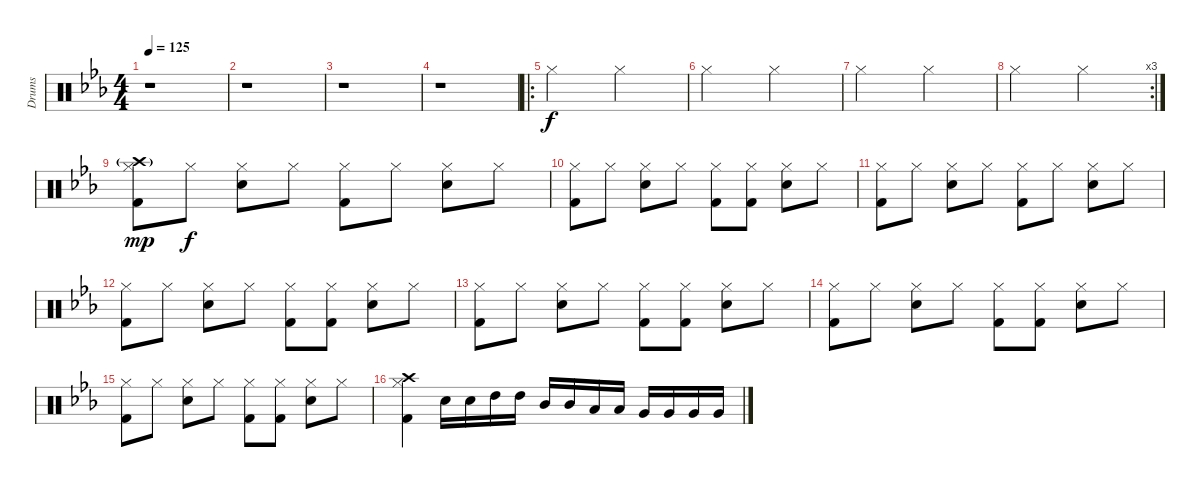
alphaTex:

\track ("Drums" "Drums") {instrument percussion}
\staff {score}
\articulation defaults
\ts (4 4)
\tempo 125
\clef neutral
\ks eb
r.1{dy f} |
r.1 |
r.1 |
r.1 |
\ro "Hi-Hat (closed)".2 "Hi-Hat (closed)".2
|
"Hi-Hat (closed)".2 "Hi-Hat (closed)".2 |
"Hi-Hat (closed)".2 "Hi-Hat (closed)".2 |
\rc 3 "Hi-Hat (closed)".2 "Hi-Hat (closed)".2
|
("Hi-Hat (closed)" "Crash high (hit)"{g} "Kick (hit) 2").8{dy mp} "Hi-Hat (closed)".8{dy f} ("Hi-Hat (closed)" "Electric Snare (hit)").8 "Hi-Hat (closed)".8 ("Hi-Hat (closed)" "Kick (hit) 2").8 "Hi-Hat (closed)".8 ("Hi-Hat (closed)" "Electric Snare (hit)").8 "Hi-Hat (closed)".8 |
("Hi-Hat (closed)" "Kick (hit) 2").8 "Hi-Hat (closed)".8 ("Hi-Hat (closed)" "Electric Snare (hit)").8 "Hi-Hat (closed)".8 ("Hi-Hat (closed)" "Kick (hit) 2").8 ("Hi-Hat (closed)" "Kick (hit) 2").8 ("Hi-Hat (closed)" "Electric Snare (hit)").8 "Hi-Hat (closed)".8 |
("Hi-Hat (closed)" "Kick (hit) 2").8 "Hi-Hat (closed)".8 ("Hi-Hat (closed)" "Electric Snare (hit)").8 "Hi-Hat (closed)".8 ("Hi-Hat (closed)" "Kick (hit) 2").8 "Hi-Hat (closed)".8 ("Hi-Hat (closed)" "Electric Snare (hit)").8 "Hi-Hat (closed)".8 |
("Hi-Hat (closed)" "Kick (hit) 2").8 "Hi-Hat (closed)".8 ("Hi-Hat (closed)" "Electric Snare (hit)").8 "Hi-Hat (closed)".8 ("Hi-Hat (closed)" "Kick (hit) 2").8 ("Hi-Hat (closed)" "Kick (hit) 2").8 ("Hi-Hat (closed)" "Electric Snare (hit)").8 "Hi-Hat (closed)".8 |
("Hi-Hat (closed)" "Kick (hit) 2").8 "Hi-Hat (closed)".8 ("Hi-Hat (closed)" "Electric Snare (hit)").8 "Hi-Hat (closed)".8 ("Hi-Hat (closed)" "Kick (hit) 2").8 ("Hi-Hat (closed)" "Kick (hit) 2").8 ("Hi-Hat (closed)" "Electric Snare (hit)").8 "Hi-Hat (closed)".8 |
("Hi-Hat (closed)" "Kick (hit) 2").8 "Hi-Hat (closed)".8 ("Hi-Hat (closed)" "Electric Snare (hit)").8 "Hi-Hat (closed)".8 ("Hi-Hat (closed)" "Kick (hit) 2").8 ("Hi-Hat (closed)" "Kick (hit) 2").8 ("Hi-Hat (closed)" "Electric Snare (hit)").8 "Hi-Hat (closed)".8 |
("Hi-Hat (closed)" "Kick (hit) 2").8 "Hi-Hat (closed)".8 ("Hi-Hat (closed)" "Electric Snare (hit)").8 "Hi-Hat (closed)".8 ("Hi-Hat (closed)" "Kick (hit) 2").8 ("Hi-Hat (closed)" "Kick (hit) 2").8 ("Hi-Hat (closed)" "Electric Snare (hit)").8 "Hi-Hat (closed)".8 |
("Hi-Hat (closed)" "Crash high (hit)" "Kick (hit) 2").4 "Electric Snare (hit)".16 "Electric Snare (hit)".16 "High Tom (hit)".16 "High Tom (hit)".16 "Mid Tom (hit)".16 "Mid Tom (hit)".16 "Low Tom (hit)".16 "Low Tom (hit)".16 "Very Low Tom (hit)".16 "Very Low Tom (hit)".16 "Very Low Tom (hit)".16 "Very Low Tom (hit)".16
